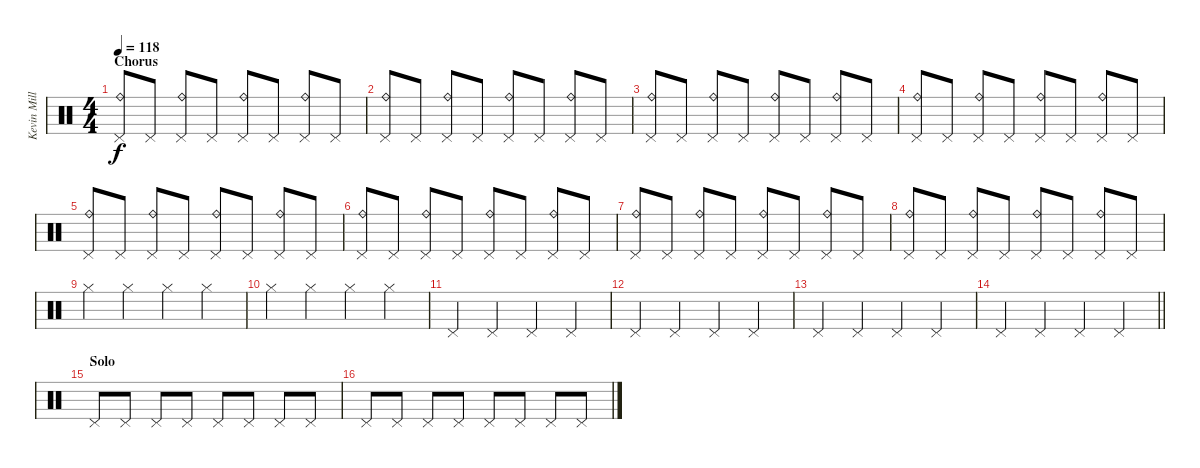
\track ("Kevin Miller (Drums)" "Kevin Mill") {instrument percussion}
\staff {score}
\articulation defaults
\ts (4 4)
\section ("" "Chorus")
\tempo 118
\clef neutral
\ks c
("Pedal Hi-Hat (hit)" "Ride (bell)").8{dy f} "Pedal Hi-Hat (hit)".8 ("Pedal Hi-Hat (hit)" "Ride (bell)").8 "Pedal Hi-Hat (hit)".8 ("Pedal Hi-Hat (hit)" "Ride (bell)").8 "Pedal Hi-Hat (hit)".8 ("Pedal Hi-Hat (hit)" "Ride (bell)").8 "Pedal Hi-Hat (hit)".8 |
("Pedal Hi-Hat (hit)" "Ride (bell)").8 "Pedal Hi-Hat (hit)".8 ("Pedal Hi-Hat (hit)" "Ride (bell)").8 "Pedal Hi-Hat (hit)".8 ("Pedal Hi-Hat (hit)" "Ride (bell)").8 "Pedal Hi-Hat (hit)".8 ("Pedal Hi-Hat (hit)" "Ride (bell)").8 "Pedal Hi-Hat (hit)".8 |
("Pedal Hi-Hat (hit)" "Ride (bell)").8 "Pedal Hi-Hat (hit)".8 ("Pedal Hi-Hat (hit)" "Ride (bell)").8 "Pedal Hi-Hat (hit)".8 ("Pedal Hi-Hat (hit)" "Ride (bell)").8 "Pedal Hi-Hat (hit)".8 ("Pedal Hi-Hat (hit)" "Ride (bell)").8 "Pedal Hi-Hat (hit)".8 |
("Pedal Hi-Hat (hit)" "Ride (bell)").8 "Pedal Hi-Hat (hit)".8 ("Pedal Hi-Hat (hit)" "Ride (bell)").8 "Pedal Hi-Hat (hit)".8 ("Pedal Hi-Hat (hit)" "Ride (bell)").8 "Pedal Hi-Hat (hit)".8 ("Pedal Hi-Hat (hit)" "Ride (bell)").8 "Pedal Hi-Hat (hit)".8 |
("Pedal Hi-Hat (hit)" "Ride (bell)").8 "Pedal Hi-Hat (hit)".8 ("Pedal Hi-Hat (hit)" "Ride (bell)").8 "Pedal Hi-Hat (hit)".8 ("Pedal Hi-Hat (hit)" "Ride (bell)").8 "Pedal Hi-Hat (hit)".8 ("Pedal Hi-Hat (hit)" "Ride (bell)").8 "Pedal Hi-Hat (hit)".8 |
("Pedal Hi-Hat (hit)" "Ride (bell)").8 "Pedal Hi-Hat (hit)".8 ("Pedal Hi-Hat (hit)" "Ride (bell)").8 "Pedal Hi-Hat (hit)".8 ("Pedal Hi-Hat (hit)" "Ride (bell)").8 "Pedal Hi-Hat (hit)".8 ("Pedal Hi-Hat (hit)" "Ride (bell)").8 "Pedal Hi-Hat (hit)".8 |
("Pedal Hi-Hat (hit)" "Ride (bell)").8 "Pedal Hi-Hat (hit)".8 ("Pedal Hi-Hat (hit)" "Ride (bell)").8 "Pedal Hi-Hat (hit)".8 ("Pedal Hi-Hat (hit)" "Ride (bell)").8 "Pedal Hi-Hat (hit)".8 ("Pedal Hi-Hat (hit)" "Ride (bell)").8 "Pedal Hi-Hat (hit)".8 |
("Pedal Hi-Hat (hit)" "Ride (bell)").8 "Pedal Hi-Hat (hit)".8 ("Pedal Hi-Hat (hit)" "Ride (bell)").8 "Pedal Hi-Hat (hit)".8 ("Pedal Hi-Hat (hit)" "Ride (bell)").8 "Pedal Hi-Hat (hit)".8 ("Pedal Hi-Hat (hit)" "Ride (bell)").8 "Pedal Hi-Hat (hit)".8 |
"Hi-Hat (closed)".4 "Hi-Hat (closed)".4 "Hi-Hat (closed)".4 "Hi-Hat (closed)".4 |
"Hi-Hat (closed)".4 "Hi-Hat (closed)".4 "Hi-Hat (closed)".4 "Hi-Hat (closed)".4 |
"Pedal Hi-Hat (hit)".4 "Pedal Hi-Hat (hit)".4 "Pedal Hi-Hat (hit)".4 "Pedal Hi-Hat (hit)".4 |
"Pedal Hi-Hat (hit)".4 "Pedal Hi-Hat (hit)".4 "Pedal Hi-Hat (hit)".4 "Pedal Hi-Hat (hit)".4 |
"Pedal Hi-Hat (hit)".4 "Pedal Hi-Hat (hit)".4 "Pedal Hi-Hat (hit)".4 "Pedal Hi-Hat (hit)".4 |
\barLineRight lightlight "Pedal Hi-Hat (hit)".4 "Pedal Hi-Hat (hit)".4 "Pedal Hi-Hat (hit)".4 "Pedal Hi-Hat (hit)".4
|
\section ("" "Solo")
"Pedal Hi-Hat (hit)".8 "Pedal Hi-Hat (hit)".8 "Pedal Hi-Hat (hit)".8 "Pedal Hi-Hat (hit)".8 "Pedal Hi-Hat (hit)".8 "Pedal Hi-Hat (hit)".8 "Pedal Hi-Hat (hit)".8 "Pedal Hi-Hat (hit)".8 |
"Pedal Hi-Hat (hit)".8 "Pedal Hi-Hat (hit)".8 "Pedal Hi-Hat (hit)".8 "Pedal Hi-Hat (hit)".8 "Pedal Hi-Hat (hit)".8 "Pedal Hi-Hat (hit)".8 "Pedal Hi-Hat (hit)".8 "Pedal Hi-Hat (hit)".8
